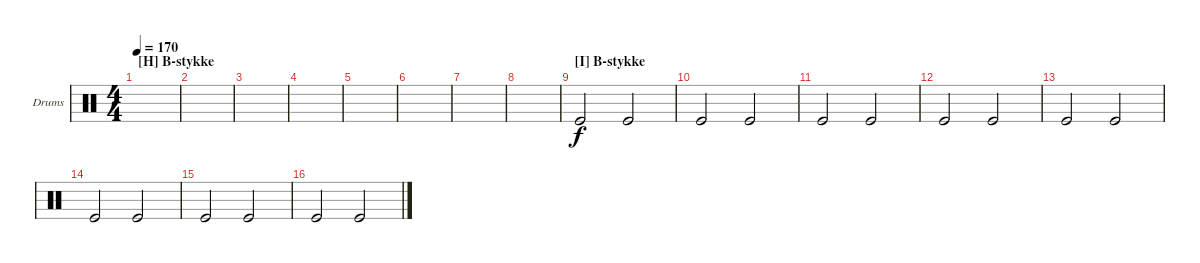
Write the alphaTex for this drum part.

\defaultSystemsLayout 4
\bracketExtendMode groupsimilarinstruments
\firstSystemTrackNameOrientation horizontal
\otherSystemsTrackNameOrientation horizontal
\track ("Ray" "Drums") {instrument percussion}
\staff {score}
\articulation defaults
\ts (4 4)
\section ("H" "B-stykke")
\tempo 170
\clef neutral
\ks c
|
|
|
|
|
|
|
|
\section ("I" "B-stykke")
"Kick (hit)".2 "Kick (hit)".2 |
"Kick (hit)".2 "Kick (hit)".2 |
"Kick (hit)".2 "Kick (hit)".2 |
"Kick (hit)".2 "Kick (hit)".2 |
"Kick (hit)".2 "Kick (hit)".2 |
"Kick (hit)".2 "Kick (hit)".2 |
"Kick (hit)".2 "Kick (hit)".2 |
"Kick (hit)".2 "Kick (hit)".2
